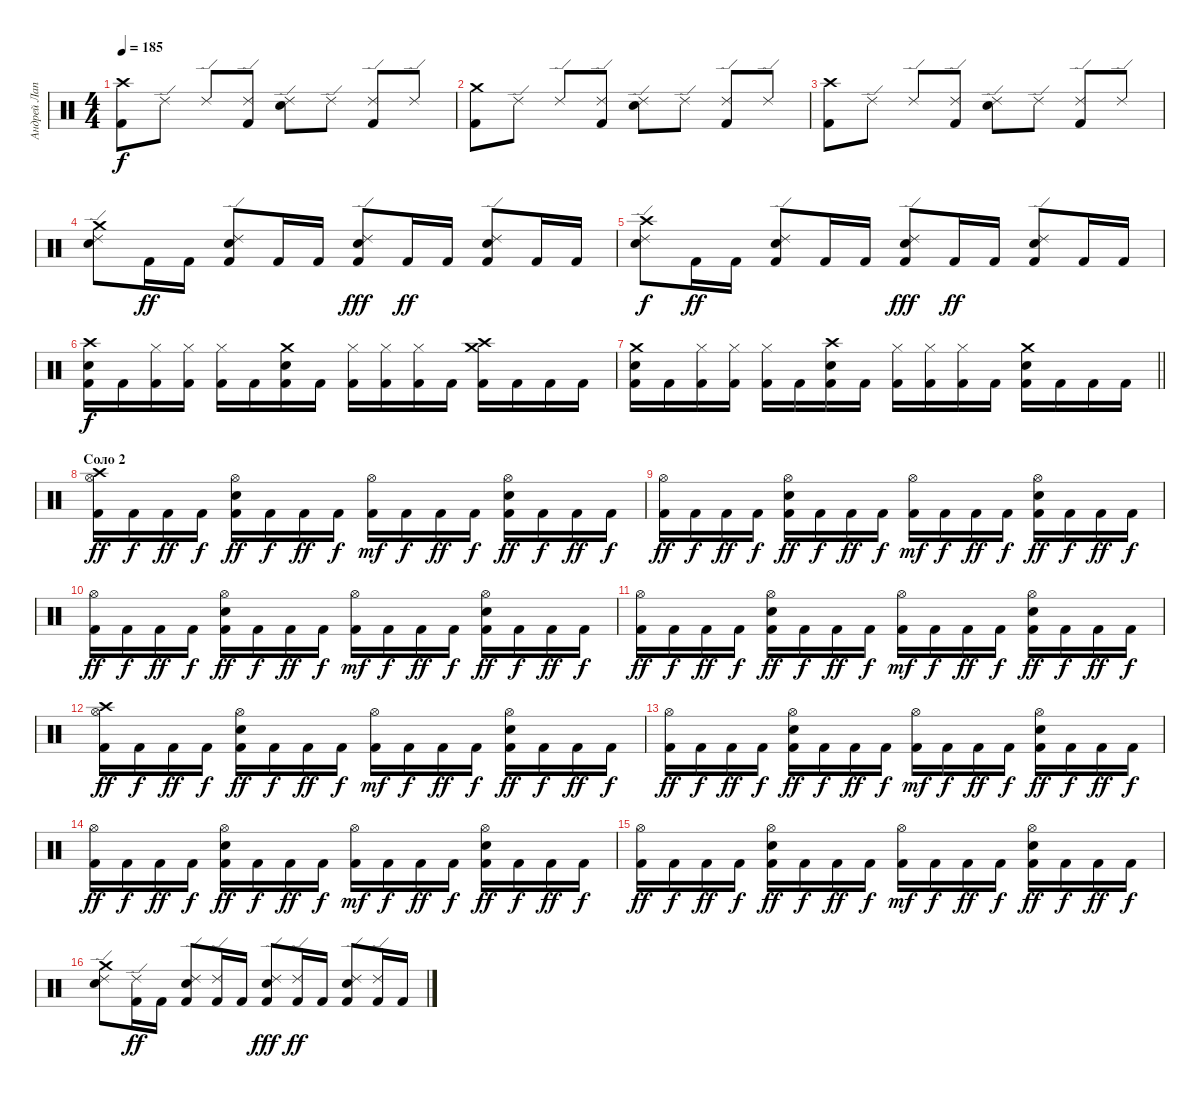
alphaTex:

\track ("Андрей Лаптев" "Андрей Лап") {instrument percussion}
\staff {score}
\articulation defaults
\ts (4 4)
\tempo 185
\clef neutral
\ks c
("Kick (hit) 2" "Crash high (hit)").8{dy f} "Ride (edge) 2".8 "Ride (edge) 2".8 ("Ride (edge) 2" "Kick (hit) 2").8 ("Ride (edge) 2" "Electric Snare (hit)").8 "Ride (edge) 2".8 ("Ride (edge) 2" "Kick (hit) 2").8 "Ride (edge) 2".8 |
("Crash medium (hit)" "Kick (hit) 2").8 "Ride (edge) 2".8 "Ride (edge) 2".8 ("Ride (edge) 2" "Kick (hit) 2").8 ("Ride (edge) 2" "Electric Snare (hit)").8 "Ride (edge) 2".8 ("Ride (edge) 2" "Kick (hit) 2").8 "Ride (edge) 2".8 |
("Kick (hit) 2" "Crash high (hit)").8 "Ride (edge) 2".8 "Ride (edge) 2".8 ("Ride (edge) 2" "Kick (hit) 2").8 ("Ride (edge) 2" "Electric Snare (hit)").8 "Ride (edge) 2".8 ("Ride (edge) 2" "Kick (hit) 2").8 "Ride (edge) 2".8 |
("Ride (edge) 2" "Crash medium (hit)" "Electric Snare (hit)").8 "Kick (hit) 2".16{dy ff} "Kick (hit) 2".16 ("Kick (hit) 2" "Electric Snare (hit)" "Ride (edge) 2").8 "Kick (hit) 2".16 "Kick (hit) 2".16 ("Kick (hit) 2" "Ride (edge) 2" "Electric Snare (hit)").8{dy fff} "Kick (hit) 2".16{dy ff} "Kick (hit) 2".16 ("Ride (edge) 2" "Electric Snare (hit)" "Kick (hit) 2").8 "Kick (hit) 2".16 "Kick (hit) 2".16 |
("Ride (edge) 2" "Crash high (hit)" "Electric Snare (hit)").8{dy f} "Kick (hit) 2".16{dy ff} "Kick (hit) 2".16 ("Kick (hit) 2" "Electric Snare (hit)" "Ride (edge) 2").8 "Kick (hit) 2".16 "Kick (hit) 2".16 ("Kick (hit) 2" "Ride (edge) 2" "Electric Snare (hit)").8{dy fff} "Kick (hit) 2".16{dy ff} "Kick (hit) 2".16 ("Ride (edge) 2" "Electric Snare (hit)" "Kick (hit) 2").8 "Kick (hit) 2".16 "Kick (hit) 2".16 |
("Kick (hit) 2" "Crash high (hit)" "Electric Snare (hit)").16{dy f} "Kick (hit) 2".16 ("Kick (hit) 2" "Hi-Hat (closed)").16 ("Kick (hit) 2" "Hi-Hat (closed)").16 ("Kick (hit) 2" "Hi-Hat (closed)").16 "Kick (hit) 2".16 ("Kick (hit) 2" "Crash medium (hit)" "Electric Snare (hit)").16 "Kick (hit) 2".16 ("Kick (hit) 2" "Hi-Hat (closed)").16 ("Kick (hit) 2" "Hi-Hat (closed)").16 ("Kick (hit) 2" "Hi-Hat (closed)").16 "Kick (hit) 2".16 ("Kick (hit) 2" "Crash high (hit)" "Crash medium (hit)").16 "Kick (hit) 2".16 "Kick (hit) 2".16 "Kick (hit) 2".16 |
\barLineRight lightlight
("Kick (hit) 2" "Crash medium (hit)" "Electric Snare (hit)").16 "Kick (hit) 2".16 ("Kick (hit) 2" "Hi-Hat (closed)").16 ("Kick (hit) 2" "Hi-Hat (closed)").16 ("Kick (hit) 2" "Hi-Hat (closed)").16 "Kick (hit) 2".16 ("Kick (hit) 2" "Crash high (hit)" "Electric Snare (hit)").16 "Kick (hit) 2".16 ("Kick (hit) 2" "Hi-Hat (closed)").16 ("Kick (hit) 2" "Hi-Hat (closed)").16 ("Kick (hit) 2" "Hi-Hat (closed)").16 "Kick (hit) 2".16 ("Kick (hit) 2" "Electric Snare (hit)" "Crash medium (hit)").16 "Kick (hit) 2".16 "Kick (hit) 2".16 "Kick (hit) 2".16 |
\section ("" "Соло 2")
("Crash high (hit)" "Kick (hit) 2" "Hi-Hat (open)").16{dy ff} "Kick (hit) 2".16{dy f} "Kick (hit) 2".16{dy ff} "Kick (hit) 2".16{dy f} ("Hi-Hat (open)" "Electric Snare (hit)" "Kick (hit) 2").16{dy ff} "Kick (hit) 2".16{dy f} "Kick (hit) 2".16{dy ff} "Kick (hit) 2".16{dy f} ("Kick (hit) 2" "Hi-Hat (open)").16{dy mf} "Kick (hit) 2".16{dy f} "Kick (hit) 2".16{dy ff} "Kick (hit) 2".16{dy f} ("Electric Snare (hit)" "Hi-Hat (open)" "Kick (hit) 2").16{dy ff} "Kick (hit) 2".16{dy f} "Kick (hit) 2".16{dy ff} "Kick (hit) 2".16{dy f} |
("Kick (hit) 2" "Hi-Hat (open)").16{dy ff} "Kick (hit) 2".16{dy f} "Kick (hit) 2".16{dy ff} "Kick (hit) 2".16{dy f} ("Hi-Hat (open)" "Electric Snare (hit)" "Kick (hit) 2").16{dy ff} "Kick (hit) 2".16{dy f} "Kick (hit) 2".16{dy ff} "Kick (hit) 2".16{dy f} ("Kick (hit) 2" "Hi-Hat (open)").16{dy mf} "Kick (hit) 2".16{dy f} "Kick (hit) 2".16{dy ff} "Kick (hit) 2".16{dy f} ("Electric Snare (hit)" "Hi-Hat (open)" "Kick (hit) 2").16{dy ff} "Kick (hit) 2".16{dy f} "Kick (hit) 2".16{dy ff} "Kick (hit) 2".16{dy f} |
("Kick (hit) 2" "Hi-Hat (open)").16{dy ff} "Kick (hit) 2".16{dy f} "Kick (hit) 2".16{dy ff} "Kick (hit) 2".16{dy f} ("Hi-Hat (open)" "Electric Snare (hit)" "Kick (hit) 2").16{dy ff} "Kick (hit) 2".16{dy f} "Kick (hit) 2".16{dy ff} "Kick (hit) 2".16{dy f} ("Kick (hit) 2" "Hi-Hat (open)").16{dy mf} "Kick (hit) 2".16{dy f} "Kick (hit) 2".16{dy ff} "Kick (hit) 2".16{dy f} ("Electric Snare (hit)" "Hi-Hat (open)" "Kick (hit) 2").16{dy ff} "Kick (hit) 2".16{dy f} "Kick (hit) 2".16{dy ff} "Kick (hit) 2".16{dy f} |
("Kick (hit) 2" "Hi-Hat (open)").16{dy ff} "Kick (hit) 2".16{dy f} "Kick (hit) 2".16{dy ff} "Kick (hit) 2".16{dy f} ("Hi-Hat (open)" "Electric Snare (hit)" "Kick (hit) 2").16{dy ff} "Kick (hit) 2".16{dy f} "Kick (hit) 2".16{dy ff} "Kick (hit) 2".16{dy f} ("Kick (hit) 2" "Hi-Hat (open)").16{dy mf} "Kick (hit) 2".16{dy f} "Kick (hit) 2".16{dy ff} "Kick (hit) 2".16{dy f} ("Electric Snare (hit)" "Hi-Hat (open)" "Kick (hit) 2").16{dy ff} "Kick (hit) 2".16{dy f} "Kick (hit) 2".16{dy ff} "Kick (hit) 2".16{dy f} |
("Crash high (hit)" "Kick (hit) 2" "Hi-Hat (open)").16{dy ff} "Kick (hit) 2".16{dy f} "Kick (hit) 2".16{dy ff} "Kick (hit) 2".16{dy f} ("Hi-Hat (open)" "Electric Snare (hit)" "Kick (hit) 2").16{dy ff} "Kick (hit) 2".16{dy f} "Kick (hit) 2".16{dy ff} "Kick (hit) 2".16{dy f} ("Kick (hit) 2" "Hi-Hat (open)").16{dy mf} "Kick (hit) 2".16{dy f} "Kick (hit) 2".16{dy ff} "Kick (hit) 2".16{dy f} ("Electric Snare (hit)" "Hi-Hat (open)" "Kick (hit) 2").16{dy ff} "Kick (hit) 2".16{dy f} "Kick (hit) 2".16{dy ff} "Kick (hit) 2".16{dy f} |
("Kick (hit) 2" "Hi-Hat (open)").16{dy ff} "Kick (hit) 2".16{dy f} "Kick (hit) 2".16{dy ff} "Kick (hit) 2".16{dy f} ("Hi-Hat (open)" "Electric Snare (hit)" "Kick (hit) 2").16{dy ff} "Kick (hit) 2".16{dy f} "Kick (hit) 2".16{dy ff} "Kick (hit) 2".16{dy f} ("Kick (hit) 2" "Hi-Hat (open)").16{dy mf} "Kick (hit) 2".16{dy f} "Kick (hit) 2".16{dy ff} "Kick (hit) 2".16{dy f} ("Electric Snare (hit)" "Hi-Hat (open)" "Kick (hit) 2").16{dy ff} "Kick (hit) 2".16{dy f} "Kick (hit) 2".16{dy ff} "Kick (hit) 2".16{dy f} |
("Kick (hit) 2" "Hi-Hat (open)").16{dy ff} "Kick (hit) 2".16{dy f} "Kick (hit) 2".16{dy ff} "Kick (hit) 2".16{dy f} ("Hi-Hat (open)" "Electric Snare (hit)" "Kick (hit) 2").16{dy ff} "Kick (hit) 2".16{dy f} "Kick (hit) 2".16{dy ff} "Kick (hit) 2".16{dy f} ("Kick (hit) 2" "Hi-Hat (open)").16{dy mf} "Kick (hit) 2".16{dy f} "Kick (hit) 2".16{dy ff} "Kick (hit) 2".16{dy f} ("Electric Snare (hit)" "Hi-Hat (open)" "Kick (hit) 2").16{dy ff} "Kick (hit) 2".16{dy f} "Kick (hit) 2".16{dy ff} "Kick (hit) 2".16{dy f} |
("Kick (hit) 2" "Hi-Hat (open)").16{dy ff} "Kick (hit) 2".16{dy f} "Kick (hit) 2".16{dy ff} "Kick (hit) 2".16{dy f} ("Hi-Hat (open)" "Electric Snare (hit)" "Kick (hit) 2").16{dy ff} "Kick (hit) 2".16{dy f} "Kick (hit) 2".16{dy ff} "Kick (hit) 2".16{dy f} ("Kick (hit) 2" "Hi-Hat (open)").16{dy mf} "Kick (hit) 2".16{dy f} "Kick (hit) 2".16{dy ff} "Kick (hit) 2".16{dy f} ("Electric Snare (hit)" "Hi-Hat (open)" "Kick (hit) 2").16{dy ff} "Kick (hit) 2".16{dy f} "Kick (hit) 2".16{dy ff} "Kick (hit) 2".16{dy f} |
("Ride (edge) 2" "Crash medium (hit)" "Electric Snare (hit)").8 ("Kick (hit) 2" "Ride (edge) 2").16{dy ff} "Kick (hit) 2".16 ("Kick (hit) 2" "Electric Snare (hit)" "Ride (edge) 2").8 ("Kick (hit) 2" "Ride (edge) 2").16 "Kick (hit) 2".16 ("Kick (hit) 2" "Ride (edge) 2" "Electric Snare (hit)").8{dy fff} ("Kick (hit) 2" "Ride (edge) 2").16{dy ff} "Kick (hit) 2".16 ("Ride (edge) 2" "Electric Snare (hit)" "Kick (hit) 2").8 ("Kick (hit) 2" "Ride (edge) 2").16 "Kick (hit) 2".16
